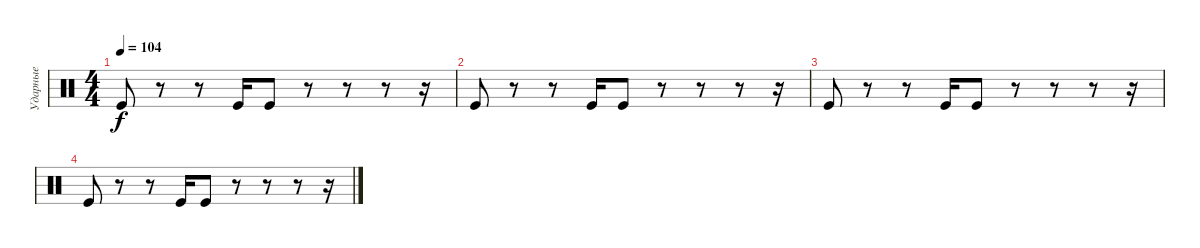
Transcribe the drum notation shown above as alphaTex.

\track ("Ударные" "Ударные") {instrument percussion}
\staff {score}
\articulation defaults
\ts (4 4)
\tempo 104
\clef neutral
\ks c "Kick (hit)".8{dy f}
r.8 r.8 "Kick (hit)".16 "Kick (hit)".8 r.8 r.8 r.8 r.16 |
"Kick (hit)".8 r.8 r.8 "Kick (hit)".16 "Kick (hit)".8 r.8 r.8 r.8 r.16 |
"Kick (hit)".8 r.8 r.8 "Kick (hit)".16 "Kick (hit)".8 r.8 r.8 r.8 r.16 |
"Kick (hit)".8 r.8 r.8 "Kick (hit)".16 "Kick (hit)".8 r.8 r.8 r.8 r.16
